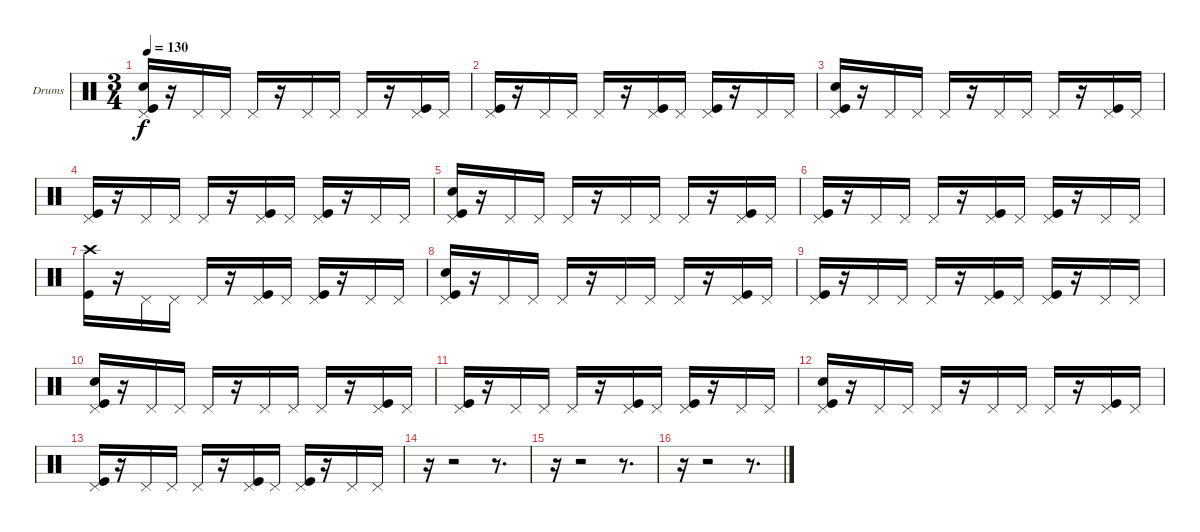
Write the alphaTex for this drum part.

\bracketExtendMode groupsimilarinstruments
\firstSystemTrackNameOrientation horizontal
\otherSystemsTrackNameOrientation horizontal
\track ("Drumkit" "Drums") {instrument percussion}
\staff {score}
\articulation defaults
\ts (3 4)
\tempo 130
\clef neutral
\ks c
("Kick (hit)" "Snare (hit) 2" "Pedal Hi-Hat (hit)").16{dy f} r.16 "Pedal Hi-Hat (hit)".16 "Pedal Hi-Hat (hit)".16 "Pedal Hi-Hat (hit)".16 r.16 "Pedal Hi-Hat (hit)".16 "Pedal Hi-Hat (hit)".16 "Pedal Hi-Hat (hit)".16 r.16 ("Kick (hit)" "Pedal Hi-Hat (hit)").16 "Pedal Hi-Hat (hit)".16 |
("Kick (hit)" "Pedal Hi-Hat (hit)").16 r.16 "Pedal Hi-Hat (hit)".16 "Pedal Hi-Hat (hit)".16 "Pedal Hi-Hat (hit)".16 r.16 ("Kick (hit)" "Pedal Hi-Hat (hit)").16 "Pedal Hi-Hat (hit)".16 ("Kick (hit)" "Pedal Hi-Hat (hit)").16 r.16 "Pedal Hi-Hat (hit)".16 "Pedal Hi-Hat (hit)".16 |
("Kick (hit)" "Snare (hit) 2" "Pedal Hi-Hat (hit)").16 r.16 "Pedal Hi-Hat (hit)".16 "Pedal Hi-Hat (hit)".16 "Pedal Hi-Hat (hit)".16 r.16 "Pedal Hi-Hat (hit)".16 "Pedal Hi-Hat (hit)".16 "Pedal Hi-Hat (hit)".16 r.16 ("Kick (hit)" "Pedal Hi-Hat (hit)").16 "Pedal Hi-Hat (hit)".16 |
("Kick (hit)" "Pedal Hi-Hat (hit)").16 r.16 "Pedal Hi-Hat (hit)".16 "Pedal Hi-Hat (hit)".16 "Pedal Hi-Hat (hit)".16 r.16 ("Kick (hit)" "Pedal Hi-Hat (hit)").16 "Pedal Hi-Hat (hit)".16 ("Kick (hit)" "Pedal Hi-Hat (hit)").16 r.16 "Pedal Hi-Hat (hit)".16 "Pedal Hi-Hat (hit)".16 |
("Kick (hit)" "Snare (hit) 2" "Pedal Hi-Hat (hit)").16 r.16 "Pedal Hi-Hat (hit)".16 "Pedal Hi-Hat (hit)".16 "Pedal Hi-Hat (hit)".16 r.16 "Pedal Hi-Hat (hit)".16 "Pedal Hi-Hat (hit)".16 "Pedal Hi-Hat (hit)".16 r.16 ("Kick (hit)" "Pedal Hi-Hat (hit)").16 "Pedal Hi-Hat (hit)".16 |
("Kick (hit)" "Pedal Hi-Hat (hit)").16 r.16 "Pedal Hi-Hat (hit)".16 "Pedal Hi-Hat (hit)".16 "Pedal Hi-Hat (hit)".16 r.16 ("Kick (hit)" "Pedal Hi-Hat (hit)").16 "Pedal Hi-Hat (hit)".16 ("Kick (hit)" "Pedal Hi-Hat (hit)").16 r.16 "Pedal Hi-Hat (hit)".16 "Pedal Hi-Hat (hit)".16 |
("Kick (hit)" "Crash high (hit)").16 r.16 "Pedal Hi-Hat (hit)".16 "Pedal Hi-Hat (hit)".16 "Pedal Hi-Hat (hit)".16 r.16 ("Kick (hit)" "Pedal Hi-Hat (hit)").16 "Pedal Hi-Hat (hit)".16 ("Kick (hit)" "Pedal Hi-Hat (hit)").16 r.16 "Pedal Hi-Hat (hit)".16 "Pedal Hi-Hat (hit)".16 |
("Kick (hit)" "Snare (hit) 2" "Pedal Hi-Hat (hit)").16 r.16 "Pedal Hi-Hat (hit)".16 "Pedal Hi-Hat (hit)".16 "Pedal Hi-Hat (hit)".16 r.16 "Pedal Hi-Hat (hit)".16 "Pedal Hi-Hat (hit)".16 "Pedal Hi-Hat (hit)".16 r.16 ("Kick (hit)" "Pedal Hi-Hat (hit)").16 "Pedal Hi-Hat (hit)".16 |
("Kick (hit)" "Pedal Hi-Hat (hit)").16 r.16 "Pedal Hi-Hat (hit)".16 "Pedal Hi-Hat (hit)".16 "Pedal Hi-Hat (hit)".16 r.16 ("Kick (hit)" "Pedal Hi-Hat (hit)").16 "Pedal Hi-Hat (hit)".16 ("Kick (hit)" "Pedal Hi-Hat (hit)").16 r.16 "Pedal Hi-Hat (hit)".16 "Pedal Hi-Hat (hit)".16 |
("Kick (hit)" "Snare (hit) 2" "Pedal Hi-Hat (hit)").16 r.16 "Pedal Hi-Hat (hit)".16 "Pedal Hi-Hat (hit)".16 "Pedal Hi-Hat (hit)".16 r.16 "Pedal Hi-Hat (hit)".16 "Pedal Hi-Hat (hit)".16 "Pedal Hi-Hat (hit)".16 r.16 ("Kick (hit)" "Pedal Hi-Hat (hit)").16 "Pedal Hi-Hat (hit)".16 |
("Kick (hit)" "Pedal Hi-Hat (hit)").16 r.16 "Pedal Hi-Hat (hit)".16 "Pedal Hi-Hat (hit)".16 "Pedal Hi-Hat (hit)".16 r.16 ("Kick (hit)" "Pedal Hi-Hat (hit)").16 "Pedal Hi-Hat (hit)".16 ("Kick (hit)" "Pedal Hi-Hat (hit)").16 r.16 "Pedal Hi-Hat (hit)".16 "Pedal Hi-Hat (hit)".16 |
("Kick (hit)" "Snare (hit) 2" "Pedal Hi-Hat (hit)").16 r.16 "Pedal Hi-Hat (hit)".16 "Pedal Hi-Hat (hit)".16 "Pedal Hi-Hat (hit)".16 r.16 "Pedal Hi-Hat (hit)".16 "Pedal Hi-Hat (hit)".16 "Pedal Hi-Hat (hit)".16 r.16 ("Kick (hit)" "Pedal Hi-Hat (hit)").16 "Pedal Hi-Hat (hit)".16 |
("Kick (hit)" "Pedal Hi-Hat (hit)").16 r.16 "Pedal Hi-Hat (hit)".16 "Pedal Hi-Hat (hit)".16 "Pedal Hi-Hat (hit)".16 r.16 ("Kick (hit)" "Pedal Hi-Hat (hit)").16 "Pedal Hi-Hat (hit)".16 ("Kick (hit)" "Pedal Hi-Hat (hit)").16 r.16 "Pedal Hi-Hat (hit)".16 "Pedal Hi-Hat (hit)".16 |
r.16 r.2 r.8{d} |
r.16 r.2 r.8{d} |
r.16 r.2 r.8{d}
